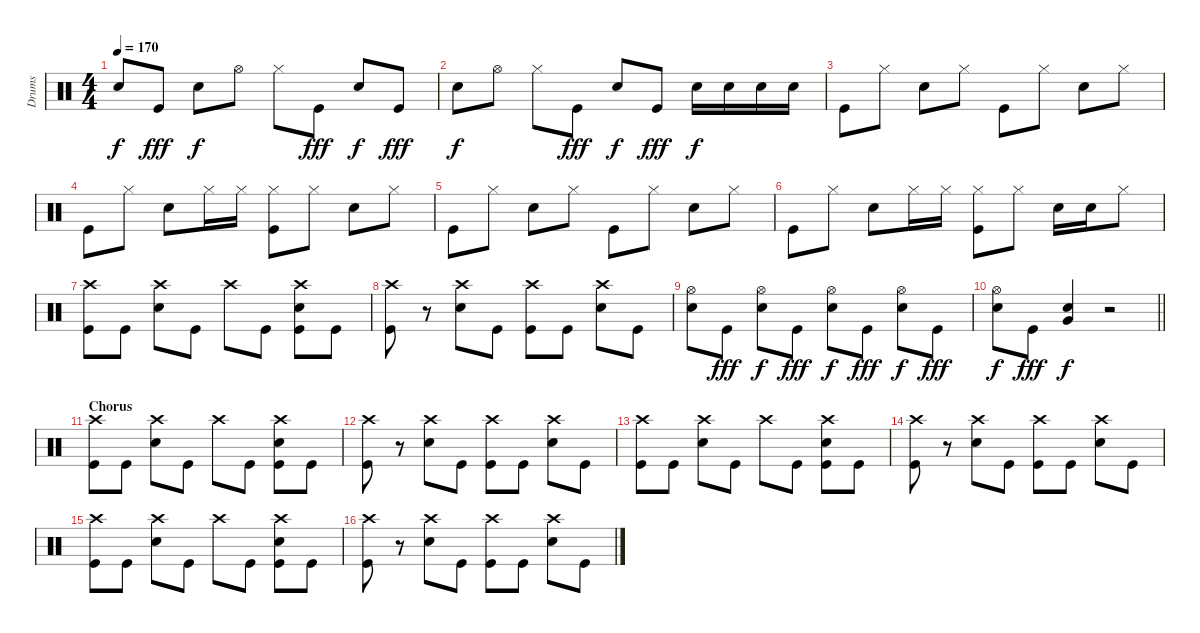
\track ("Drums" "Drums") {instrument percussion}
\staff {score}
\articulation defaults
\ts (4 4)
\tempo 170
\clef neutral
\ks c "Electric Snare (hit)".8{dy f} "Kick (hit)".8{dy fff} "Electric Snare (hit)".8{dy f} "Hi-Hat (open)".8 "Hi-Hat (closed)".8 "Kick (hit)".8{dy fff} "Electric Snare (hit)".8{dy f} "Kick (hit)".8{dy fff}
|
"Electric Snare (hit)".8{dy f} "Hi-Hat (open)".8 "Hi-Hat (closed)".8 "Kick (hit)".8{dy fff} "Electric Snare (hit)".8{dy f} "Kick (hit)".8{dy fff} "Electric Snare (hit)".16{dy f} "Electric Snare (hit)".16 "Electric Snare (hit)".16 "Electric Snare (hit)".16 |
"Kick (hit)".8 "Hi-Hat (closed)".8 "Electric Snare (hit)".8 "Hi-Hat (closed)".8 "Kick (hit)".8 "Hi-Hat (closed)".8 "Electric Snare (hit)".8 "Hi-Hat (closed)".8 |
"Kick (hit)".8 "Hi-Hat (closed)".8 "Electric Snare (hit)".8 "Hi-Hat (closed)".16 "Hi-Hat (closed)".16 ("Hi-Hat (closed)" "Kick (hit)").8 "Hi-Hat (closed)".8 "Electric Snare (hit)".8 "Hi-Hat (closed)".8 |
"Kick (hit)".8 "Hi-Hat (closed)".8 "Electric Snare (hit)".8 "Hi-Hat (closed)".8 "Kick (hit)".8 "Hi-Hat (closed)".8 "Electric Snare (hit)".8 "Hi-Hat (closed)".8 |
"Kick (hit)".8 "Hi-Hat (closed)".8 "Electric Snare (hit)".8 "Hi-Hat (closed)".16 "Hi-Hat (closed)".16 ("Hi-Hat (closed)" "Kick (hit)").8 "Hi-Hat (closed)".8 "Electric Snare (hit)".16 "Electric Snare (hit)".16 "Hi-Hat (closed)".8 |
("Crash high (hit)" "Kick (hit)").8 "Kick (hit)".8 ("Crash high (hit)" "Electric Snare (hit)").8 "Kick (hit)".8 "Crash high (hit)".8 "Kick (hit)".8 ("Crash high (hit)" "Electric Snare (hit)" "Kick (hit)").8 "Kick (hit)".8 |
("Crash high (hit)" "Kick (hit)").8 r.8 ("Crash high (hit)" "Electric Snare (hit)").8 "Kick (hit)".8 ("Crash high (hit)" "Kick (hit)").8 "Kick (hit)".8 ("Crash high (hit)" "Electric Snare (hit)").8 "Kick (hit)".8 |
("Hi-Hat (open)" "Electric Snare (hit)").8 "Kick (hit)".8{dy fff} ("Hi-Hat (open)" "Electric Snare (hit)").8{dy f} "Kick (hit)".8{dy fff} ("Hi-Hat (open)" "Electric Snare (hit)").8{dy f} "Kick (hit)".8{dy fff} ("Hi-Hat (open)" "Electric Snare (hit)").8{dy f} "Kick (hit)".8{dy fff} |
\barLineRight lightlight
("Hi-Hat (open)" "Electric Snare (hit)").8{dy f} "Kick (hit)".8{dy fff} ("Electric Snare (hit)" "Very Low Tom (hit)").4{dy f} r.2 |
\section ("" "Chorus")
("Crash high (hit)" "Kick (hit)").8 "Kick (hit)".8 ("Crash high (hit)" "Electric Snare (hit)").8 "Kick (hit)".8 "Crash high (hit)".8 "Kick (hit)".8 ("Crash high (hit)" "Electric Snare (hit)" "Kick (hit)").8 "Kick (hit)".8 |
("Crash high (hit)" "Kick (hit)").8 r.8 ("Crash high (hit)" "Electric Snare (hit)").8 "Kick (hit)".8 ("Crash high (hit)" "Kick (hit)").8 "Kick (hit)".8 ("Crash high (hit)" "Electric Snare (hit)").8 "Kick (hit)".8 |
("Crash high (hit)" "Kick (hit)").8 "Kick (hit)".8 ("Crash high (hit)" "Electric Snare (hit)").8 "Kick (hit)".8 "Crash high (hit)".8 "Kick (hit)".8 ("Crash high (hit)" "Electric Snare (hit)" "Kick (hit)").8 "Kick (hit)".8 |
("Crash high (hit)" "Kick (hit)").8 r.8 ("Crash high (hit)" "Electric Snare (hit)").8 "Kick (hit)".8 ("Crash high (hit)" "Kick (hit)").8 "Kick (hit)".8 ("Crash high (hit)" "Electric Snare (hit)").8 "Kick (hit)".8 |
("Crash high (hit)" "Kick (hit)").8 "Kick (hit)".8 ("Crash high (hit)" "Electric Snare (hit)").8 "Kick (hit)".8 "Crash high (hit)".8 "Kick (hit)".8 ("Crash high (hit)" "Electric Snare (hit)" "Kick (hit)").8 "Kick (hit)".8 |
("Crash high (hit)" "Kick (hit)").8 r.8 ("Crash high (hit)" "Electric Snare (hit)").8 "Kick (hit)".8 ("Crash high (hit)" "Kick (hit)").8 "Kick (hit)".8 ("Crash high (hit)" "Electric Snare (hit)").8 "Kick (hit)".8
